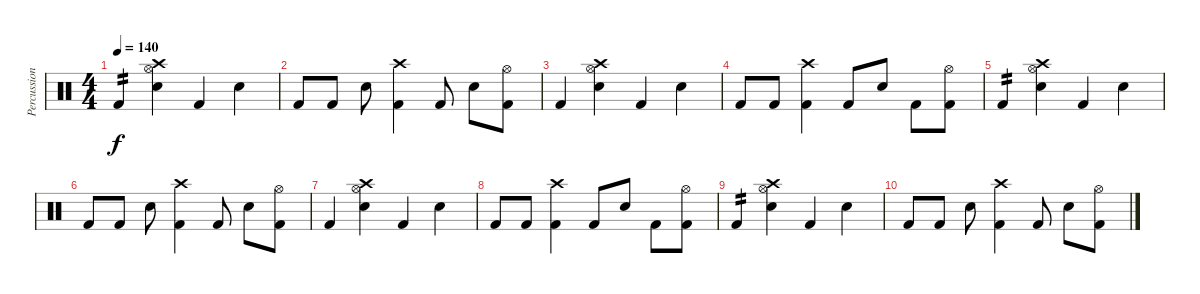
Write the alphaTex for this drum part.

\track ("Percussion" "Percussion") {instrument percussion}
\staff {score}
\articulation defaults
\ts (4 4)
\tempo 140
\clef neutral
\ks c "Kick (hit) 2".4{tp 2 dy f}
("Crash high (hit)" "Electric Snare (hit)" "Hi-Hat (open)").4 "Kick (hit) 2".4 "Electric Snare (hit)".4 |
"Kick (hit) 2".8 "Kick (hit) 2".8 "Electric Snare (hit)".8 ("Crash high (hit)" "Kick (hit) 2").4 "Kick (hit) 2".8 "Electric Snare (hit)".8 ("Hi-Hat (open)" "Kick (hit) 2").8 |
"Kick (hit) 2".4 ("Crash high (hit)" "Electric Snare (hit)" "Hi-Hat (open)").4 "Kick (hit) 2".4 "Electric Snare (hit)".4 |
"Kick (hit) 2".8 "Kick (hit) 2".8 ("Crash high (hit)" "Kick (hit) 2").4 "Kick (hit) 2".8 "Electric Snare (hit)".8 "Kick (hit) 2".8 ("Hi-Hat (open)" "Kick (hit) 2").8 |
"Kick (hit) 2".4{tp 2} ("Crash high (hit)" "Electric Snare (hit)" "Hi-Hat (open)").4 "Kick (hit) 2".4 "Electric Snare (hit)".4 |
"Kick (hit) 2".8 "Kick (hit) 2".8 "Electric Snare (hit)".8 ("Crash high (hit)" "Kick (hit) 2").4 "Kick (hit) 2".8 "Electric Snare (hit)".8 ("Hi-Hat (open)" "Kick (hit) 2").8 |
"Kick (hit) 2".4 ("Crash high (hit)" "Electric Snare (hit)" "Hi-Hat (open)").4 "Kick (hit) 2".4 "Electric Snare (hit)".4 |
"Kick (hit) 2".8 "Kick (hit) 2".8 ("Crash high (hit)" "Kick (hit) 2").4 "Kick (hit) 2".8 "Electric Snare (hit)".8 "Kick (hit) 2".8 ("Hi-Hat (open)" "Kick (hit) 2").8 |
"Kick (hit) 2".4{tp 2} ("Crash high (hit)" "Electric Snare (hit)" "Hi-Hat (open)").4 "Kick (hit) 2".4 "Electric Snare (hit)".4 |
"Kick (hit) 2".8 "Kick (hit) 2".8 "Electric Snare (hit)".8 ("Crash high (hit)" "Kick (hit) 2").4 "Kick (hit) 2".8 "Electric Snare (hit)".8 ("Hi-Hat (open)" "Kick (hit) 2").8
